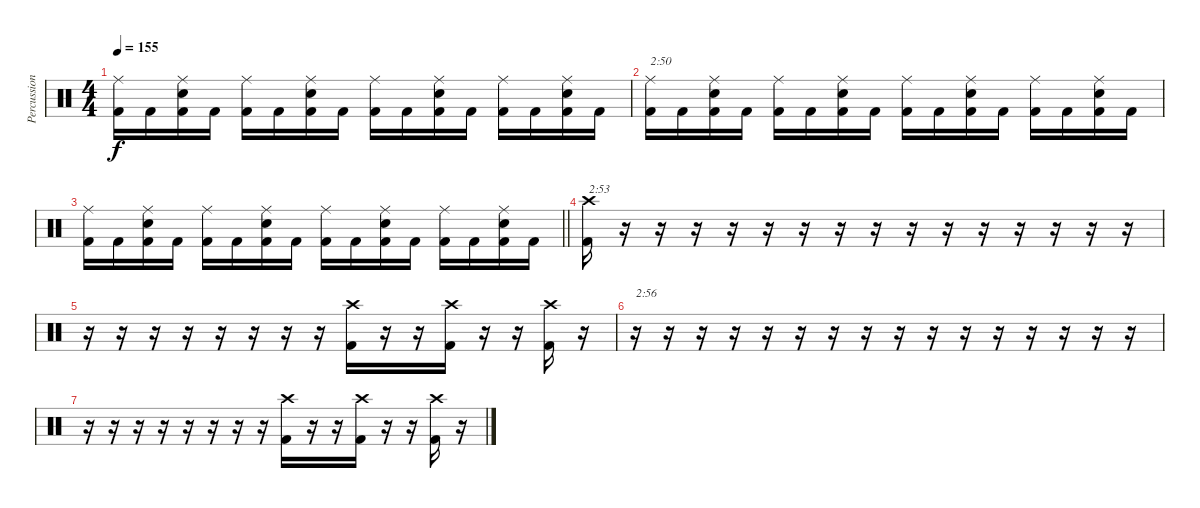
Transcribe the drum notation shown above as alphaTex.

\track ("Percussion" "Percussion") {instrument percussion}
\staff {score}
\articulation defaults
\ts (4 4)
\tempo 155
\clef neutral
\ks c
("Ride (middle)" "Kick (hit) 2").16{dy f} "Kick (hit) 2".16 ("Ride (middle)" "Electric Snare (hit)" "Kick (hit) 2").16 "Kick (hit) 2".16 ("Ride (middle)" "Kick (hit) 2").16 "Kick (hit) 2".16 ("Ride (middle)" "Electric Snare (hit)" "Kick (hit) 2").16 "Kick (hit) 2".16 ("Ride (middle)" "Kick (hit) 2").16 "Kick (hit) 2".16 ("Ride (middle)" "Electric Snare (hit)" "Kick (hit) 2").16 "Kick (hit) 2".16 ("Ride (middle)" "Kick (hit) 2").16 "Kick (hit) 2".16 ("Ride (middle)" "Electric Snare (hit)" "Kick (hit) 2").16 "Kick (hit) 2".16 |
("Ride (middle)" "Kick (hit) 2").16{txt "2:50"} "Kick (hit) 2".16 ("Ride (middle)" "Electric Snare (hit)" "Kick (hit) 2").16 "Kick (hit) 2".16 ("Ride (middle)" "Kick (hit) 2").16 "Kick (hit) 2".16 ("Ride (middle)" "Electric Snare (hit)" "Kick (hit) 2").16 "Kick (hit) 2".16 ("Ride (middle)" "Kick (hit) 2").16 "Kick (hit) 2".16 ("Ride (middle)" "Electric Snare (hit)" "Kick (hit) 2").16 "Kick (hit) 2".16 ("Ride (middle)" "Kick (hit) 2").16 "Kick (hit) 2".16 ("Ride (middle)" "Electric Snare (hit)" "Kick (hit) 2").16 "Kick (hit) 2".16 |
\barLineRight lightlight
("Ride (middle)" "Kick (hit) 2").16 "Kick (hit) 2".16 ("Ride (middle)" "Electric Snare (hit)" "Kick (hit) 2").16 "Kick (hit) 2".16 ("Ride (middle)" "Kick (hit) 2").16 "Kick (hit) 2".16 ("Ride (middle)" "Electric Snare (hit)" "Kick (hit) 2").16 "Kick (hit) 2".16 ("Ride (middle)" "Kick (hit) 2").16 "Kick (hit) 2".16 ("Ride (middle)" "Electric Snare (hit)" "Kick (hit) 2").16 "Kick (hit) 2".16 ("Ride (middle)" "Kick (hit) 2").16 "Kick (hit) 2".16 ("Ride (middle)" "Electric Snare (hit)" "Kick (hit) 2").16 "Kick (hit) 2".16 |
\section ("" "")
("Crash high (hit)" "Kick (hit) 2").16{txt "2:53"} r.16 r.16{volume 0} r.16 r.16 r.16 r.16 r.16 r.16 r.16 r.16 r.16 r.16 r.16 r.16 r.16 |
r.16 r.16 r.16 r.16 r.16 r.16 r.16 r.16 ("Crash high (hit)" "Kick (hit) 2").16{volume 13} r.16 r.16{volume 0} ("Crash high (hit)" "Kick (hit) 2").16{volume 13} r.16 r.16{volume 0} ("Crash high (hit)" "Kick (hit) 2").16{volume 13} r.16 |
r.16{txt "2:56" volume 0} r.16 r.16 r.16 r.16 r.16 r.16 r.16 r.16 r.16 r.16 r.16 r.16 r.16 r.16 r.16 |
r.16 r.16 r.16 r.16 r.16 r.16 r.16 r.16 ("Crash high (hit)" "Kick (hit) 2").16{volume 13} r.16 r.16{volume 0} ("Crash high (hit)" "Kick (hit) 2").16{volume 13} r.16 r.16{volume 0} ("Crash high (hit)" "Kick (hit) 2").16{volume 13} r.16
